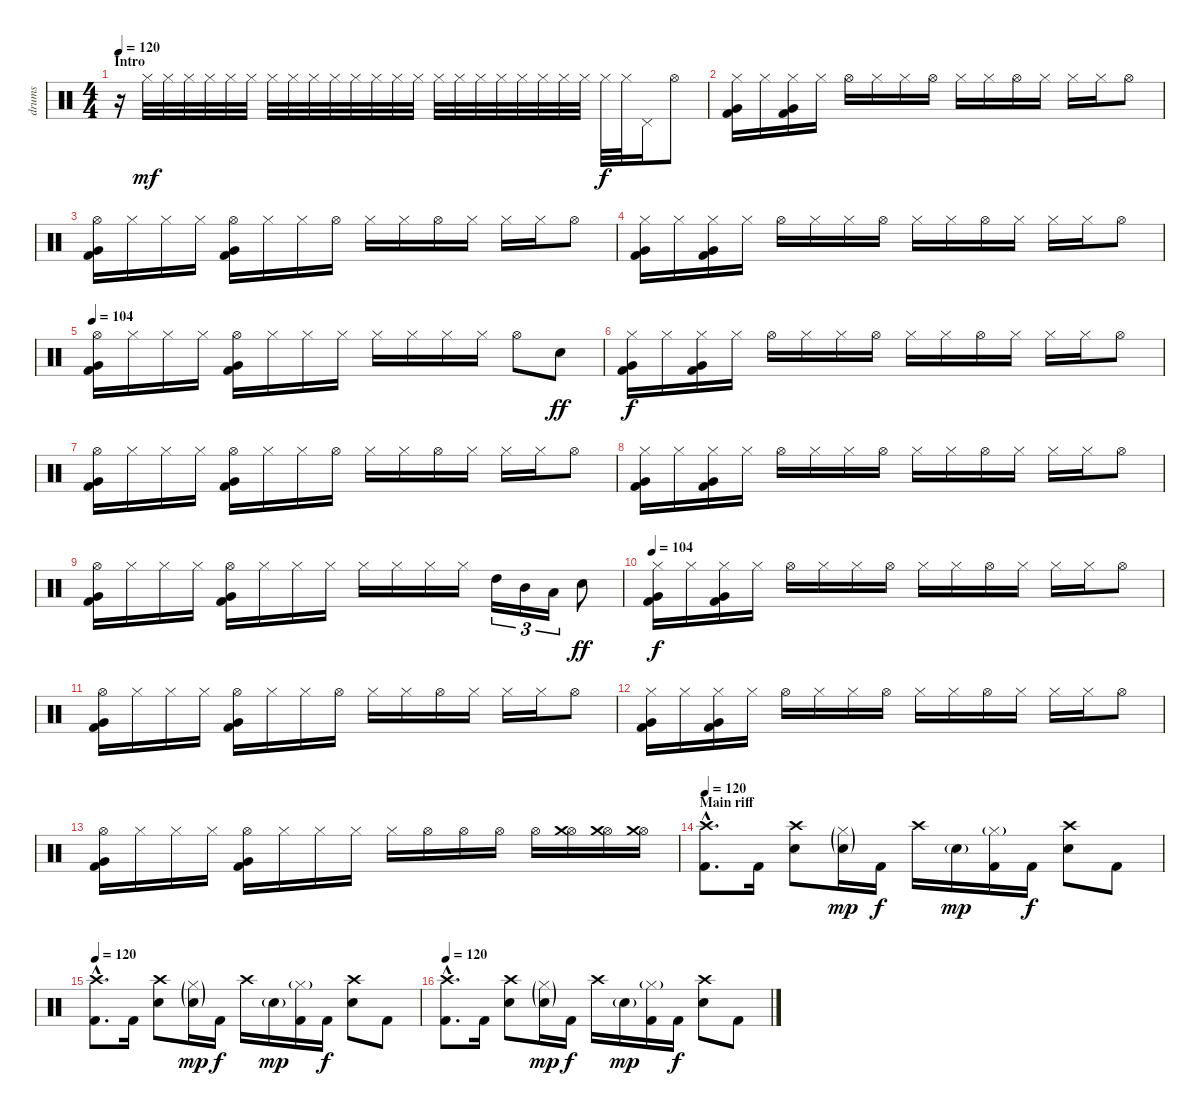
\track ("drums" "drums") {instrument percussion}
\staff {score}
\articulation defaults
\ts (4 4)
\section ("" "Intro")
\tempo 120
\tempo 104
\tempo 120
\clef neutral
\ks c
r.16{dy mf} "Hi-Hat (closed)".32 "Hi-Hat (closed)".32 "Hi-Hat (closed)".32 "Hi-Hat (closed)".32 "Hi-Hat (closed)".32 "Hi-Hat (closed)".32 "Hi-Hat (closed)".32 "Hi-Hat (closed)".32 "Hi-Hat (closed)".32 "Hi-Hat (closed)".32 "Hi-Hat (closed)".32 "Hi-Hat (closed)".32 "Hi-Hat (closed)".32 "Hi-Hat (closed)".32 "Hi-Hat (closed)".32 "Hi-Hat (closed)".32 "Hi-Hat (closed)".32 "Hi-Hat (closed)".32 "Hi-Hat (closed)".32 "Hi-Hat (closed)".32 "Hi-Hat (closed)".32 "Hi-Hat (closed)".32 "Hi-Hat (closed)".32{dy f} "Hi-Hat (closed)".32 "Pedal Hi-Hat (hit)".16 "Hi-Hat (open)".8 |
("Hi-Hat (closed)" "Very Low Tom (hit)" "Kick (hit) 2").16 "Hi-Hat (closed)".16 ("Hi-Hat (closed)" "Very Low Tom (hit)" "Kick (hit) 2").16 "Hi-Hat (closed)".16 "Hi-Hat (open)".16 "Hi-Hat (closed)".16 "Hi-Hat (closed)".16 "Hi-Hat (open)".16 "Hi-Hat (closed)".16 "Hi-Hat (closed)".16 "Hi-Hat (open)".16 "Hi-Hat (closed)".16 "Hi-Hat (closed)".16 "Hi-Hat (closed)".16 "Hi-Hat (open)".8 |
("Hi-Hat (open)" "Very Low Tom (hit)" "Kick (hit) 2").16 "Hi-Hat (closed)".16 "Hi-Hat (closed)".16 "Hi-Hat (closed)".16 ("Hi-Hat (open)" "Very Low Tom (hit)" "Kick (hit) 2").16 "Hi-Hat (closed)".16 "Hi-Hat (closed)".16 "Hi-Hat (open)".16 "Hi-Hat (closed)".16 "Hi-Hat (closed)".16 "Hi-Hat (open)".16 "Hi-Hat (closed)".16 "Hi-Hat (closed)".16 "Hi-Hat (closed)".16 "Hi-Hat (open)".8 |
("Hi-Hat (closed)" "Very Low Tom (hit)" "Kick (hit) 2").16 "Hi-Hat (closed)".16 ("Hi-Hat (closed)" "Very Low Tom (hit)" "Kick (hit) 2").16 "Hi-Hat (closed)".16 "Hi-Hat (open)".16 "Hi-Hat (closed)".16 "Hi-Hat (closed)".16 "Hi-Hat (open)".16 "Hi-Hat (closed)".16 "Hi-Hat (closed)".16 "Hi-Hat (open)".16 "Hi-Hat (closed)".16 "Hi-Hat (closed)".16 "Hi-Hat (closed)".16 "Hi-Hat (open)".8 |
\tempo 104
("Hi-Hat (open)" "Very Low Tom (hit)" "Kick (hit) 2").16 "Hi-Hat (closed)".16 "Hi-Hat (closed)".16 "Hi-Hat (closed)".16 ("Hi-Hat (open)" "Very Low Tom (hit)" "Kick (hit) 2").16 "Hi-Hat (closed)".16 "Hi-Hat (closed)".16 "Hi-Hat (closed)".16 "Hi-Hat (closed)".16 "Hi-Hat (closed)".16 "Hi-Hat (closed)".16 "Hi-Hat (closed)".16 "Hi-Hat (open)".8 "Electric Snare (hit)".8{dy ff} |
("Hi-Hat (closed)" "Very Low Tom (hit)" "Kick (hit) 2").16{dy f} "Hi-Hat (closed)".16 ("Hi-Hat (closed)" "Very Low Tom (hit)" "Kick (hit) 2").16 "Hi-Hat (closed)".16 "Hi-Hat (open)".16 "Hi-Hat (closed)".16 "Hi-Hat (closed)".16 "Hi-Hat (open)".16 "Hi-Hat (closed)".16 "Hi-Hat (closed)".16 "Hi-Hat (open)".16 "Hi-Hat (closed)".16 "Hi-Hat (closed)".16 "Hi-Hat (closed)".16 "Hi-Hat (open)".8 |
("Hi-Hat (open)" "Very Low Tom (hit)" "Kick (hit) 2").16 "Hi-Hat (closed)".16 "Hi-Hat (closed)".16 "Hi-Hat (closed)".16 ("Hi-Hat (open)" "Very Low Tom (hit)" "Kick (hit) 2").16 "Hi-Hat (closed)".16 "Hi-Hat (closed)".16 "Hi-Hat (open)".16 "Hi-Hat (closed)".16 "Hi-Hat (closed)".16 "Hi-Hat (open)".16 "Hi-Hat (closed)".16 "Hi-Hat (closed)".16 "Hi-Hat (closed)".16 "Hi-Hat (open)".8 |
("Hi-Hat (closed)" "Very Low Tom (hit)" "Kick (hit) 2").16 "Hi-Hat (closed)".16 ("Hi-Hat (closed)" "Very Low Tom (hit)" "Kick (hit) 2").16 "Hi-Hat (closed)".16 "Hi-Hat (open)".16 "Hi-Hat (closed)".16 "Hi-Hat (closed)".16 "Hi-Hat (open)".16 "Hi-Hat (closed)".16 "Hi-Hat (closed)".16 "Hi-Hat (open)".16 "Hi-Hat (closed)".16 "Hi-Hat (closed)".16 "Hi-Hat (closed)".16 "Hi-Hat (open)".8 |
("Hi-Hat (open)" "Very Low Tom (hit)" "Kick (hit) 2").16 "Hi-Hat (closed)".16 "Hi-Hat (closed)".16 "Hi-Hat (closed)".16 ("Hi-Hat (open)" "Very Low Tom (hit)" "Kick (hit) 2").16 "Hi-Hat (closed)".16 "Hi-Hat (closed)".16 "Hi-Hat (closed)".16 "Hi-Hat (closed)".16 "Hi-Hat (closed)".16 "Hi-Hat (closed)".16 "Hi-Hat (closed)".16 "High Tom (hit)".16{tu (3 2)} "Mid Tom (hit)".16{tu (3 2)} "Low Tom (hit)".16{tu (3 2)} "Electric Snare (hit)".8{dy ff} |
\tempo 104
("Hi-Hat (closed)" "Very Low Tom (hit)" "Kick (hit) 2").16{dy f} "Hi-Hat (closed)".16 ("Hi-Hat (closed)" "Very Low Tom (hit)" "Kick (hit) 2").16 "Hi-Hat (closed)".16 "Hi-Hat (open)".16 "Hi-Hat (closed)".16 "Hi-Hat (closed)".16 "Hi-Hat (open)".16 "Hi-Hat (closed)".16 "Hi-Hat (closed)".16 "Hi-Hat (open)".16 "Hi-Hat (closed)".16 "Hi-Hat (closed)".16 "Hi-Hat (closed)".16 "Hi-Hat (open)".8 |
("Hi-Hat (open)" "Very Low Tom (hit)" "Kick (hit) 2").16 "Hi-Hat (closed)".16 "Hi-Hat (closed)".16 "Hi-Hat (closed)".16 ("Hi-Hat (open)" "Very Low Tom (hit)" "Kick (hit) 2").16 "Hi-Hat (closed)".16 "Hi-Hat (closed)".16 "Hi-Hat (open)".16 "Hi-Hat (closed)".16 "Hi-Hat (closed)".16 "Hi-Hat (open)".16 "Hi-Hat (closed)".16 "Hi-Hat (closed)".16 "Hi-Hat (closed)".16 "Hi-Hat (open)".8 |
("Hi-Hat (closed)" "Very Low Tom (hit)" "Kick (hit) 2").16 "Hi-Hat (closed)".16 ("Hi-Hat (closed)" "Very Low Tom (hit)" "Kick (hit) 2").16 "Hi-Hat (closed)".16 "Hi-Hat (open)".16 "Hi-Hat (closed)".16 "Hi-Hat (closed)".16 "Hi-Hat (open)".16 "Hi-Hat (closed)".16 "Hi-Hat (closed)".16 "Hi-Hat (open)".16 "Hi-Hat (closed)".16 "Hi-Hat (closed)".16 "Hi-Hat (closed)".16 "Hi-Hat (open)".8 |
("Hi-Hat (open)" "Very Low Tom (hit)" "Kick (hit) 2").16 "Hi-Hat (closed)".16 "Hi-Hat (closed)".16 "Hi-Hat (closed)".16 ("Hi-Hat (open)" "Very Low Tom (hit)" "Kick (hit) 2").16 "Hi-Hat (closed)".16 "Hi-Hat (closed)".16 "Hi-Hat (closed)".16 "Hi-Hat (closed)".16 "Hi-Hat (open)".16 "Hi-Hat (open)".16 "Hi-Hat (open)".16 "Hi-Hat (open)".16 ("Hi-Hat (open)" "Crash medium (hit)").16 ("Hi-Hat (open)" "Crash medium (hit)").16 ("Hi-Hat (open)" "Crash medium (hit)").16 |
\section ("" "Main riff")
\tempo 120
("Crash high (hit)"{hac} "Kick (hit) 2"{hac}).8{d} "Kick (hit) 2".16 ("Crash high (hit)" "Electric Snare (hit)").8 ("Hi-Hat (closed)"{g} "Electric Snare (hit)"{g}).16{dy mp} "Kick (hit) 2".16{dy f} "Crash high (hit)".16 "Electric Snare (hit)"{g}.16{dy mp} ("Hi-Hat (closed)"{g} "Kick (hit) 2").16 "Kick (hit) 2".16{dy f} ("Crash high (hit)" "Electric Snare (hit)").8 "Kick (hit) 2".8 |
\tempo 120
("Crash high (hit)"{hac} "Kick (hit) 2"{hac}).8{d} "Kick (hit) 2".16 ("Crash high (hit)" "Electric Snare (hit)").8 ("Hi-Hat (closed)"{g} "Electric Snare (hit)"{g}).16{dy mp} "Kick (hit) 2".16{dy f} "Crash high (hit)".16 "Electric Snare (hit)"{g}.16{dy mp} ("Hi-Hat (closed)"{g} "Kick (hit) 2").16 "Kick (hit) 2".16{dy f} ("Crash high (hit)" "Electric Snare (hit)").8 "Kick (hit) 2".8 |
\tempo 120
("Crash high (hit)"{hac} "Kick (hit) 2"{hac}).8{d} "Kick (hit) 2".16 ("Crash high (hit)" "Electric Snare (hit)").8 ("Hi-Hat (closed)"{g} "Electric Snare (hit)"{g}).16{dy mp} "Kick (hit) 2".16{dy f} "Crash high (hit)".16 "Electric Snare (hit)"{g}.16{dy mp} ("Hi-Hat (closed)"{g} "Kick (hit) 2").16 "Kick (hit) 2".16{dy f} ("Crash high (hit)" "Electric Snare (hit)").8 "Kick (hit) 2".8
